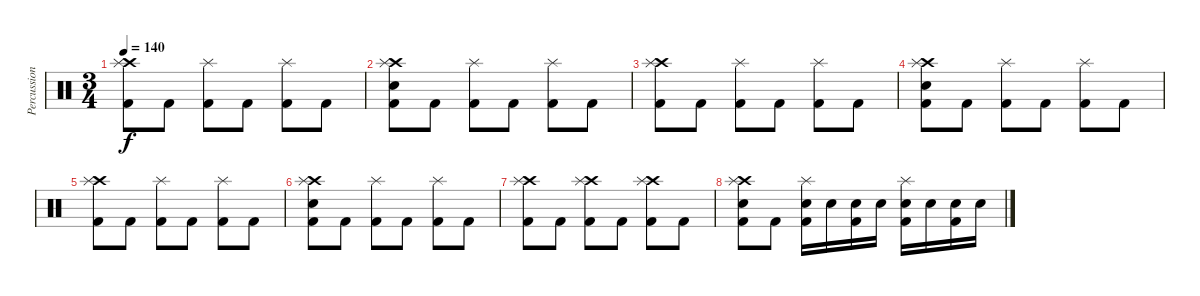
\track ("Percussion" "Percussion") {instrument percussion}
\staff {score}
\articulation defaults
\ts (3 4)
\tempo 140
\clef neutral
\ks c
("Crash high (hit)" "Splash (hit)" "Kick (hit) 2").8{dy f} "Kick (hit) 2".8 ("Splash (hit)" "Kick (hit) 2").8 "Kick (hit) 2".8 ("Splash (hit)" "Kick (hit) 2").8 "Kick (hit) 2".8 |
("Crash high (hit)" "Splash (hit)" "Electric Snare (hit)" "Kick (hit) 2").8 "Kick (hit) 2".8 ("Splash (hit)" "Kick (hit) 2").8 "Kick (hit) 2".8 ("Splash (hit)" "Kick (hit) 2").8 "Kick (hit) 2".8 |
("Crash high (hit)" "Splash (hit)" "Kick (hit) 2").8 "Kick (hit) 2".8 ("Splash (hit)" "Kick (hit) 2").8 "Kick (hit) 2".8 ("Splash (hit)" "Kick (hit) 2").8 "Kick (hit) 2".8 |
("Crash high (hit)" "Splash (hit)" "Electric Snare (hit)" "Kick (hit) 2").8 "Kick (hit) 2".8 ("Splash (hit)" "Kick (hit) 2").8 "Kick (hit) 2".8 ("Splash (hit)" "Kick (hit) 2").8 "Kick (hit) 2".8 |
("Crash high (hit)" "Splash (hit)" "Kick (hit) 2").8 "Kick (hit) 2".8 ("Splash (hit)" "Kick (hit) 2").8 "Kick (hit) 2".8 ("Splash (hit)" "Kick (hit) 2").8 "Kick (hit) 2".8 |
("Crash high (hit)" "Splash (hit)" "Electric Snare (hit)" "Kick (hit) 2").8 "Kick (hit) 2".8 ("Splash (hit)" "Kick (hit) 2").8 "Kick (hit) 2".8 ("Splash (hit)" "Kick (hit) 2").8 "Kick (hit) 2".8 |
("Crash high (hit)" "Splash (hit)" "Kick (hit) 2").8 "Kick (hit) 2".8 ("Crash high (hit)" "Splash (hit)" "Kick (hit) 2").8 "Kick (hit) 2".8 ("Crash high (hit)" "Splash (hit)" "Kick (hit) 2").8 "Kick (hit) 2".8 |
("Crash high (hit)" "Splash (hit)" "Electric Snare (hit)" "Kick (hit) 2").8 "Kick (hit) 2".8 ("Splash (hit)" "Electric Snare (hit)" "Kick (hit) 2").16 "Electric Snare (hit)".16 ("Electric Snare (hit)" "Kick (hit) 2").16 "Electric Snare (hit)".16 ("Splash (hit)" "Electric Snare (hit)" "Kick (hit) 2").16 "Electric Snare (hit)".16 ("Electric Snare (hit)" "Kick (hit) 2").16 "Electric Snare (hit)".16
